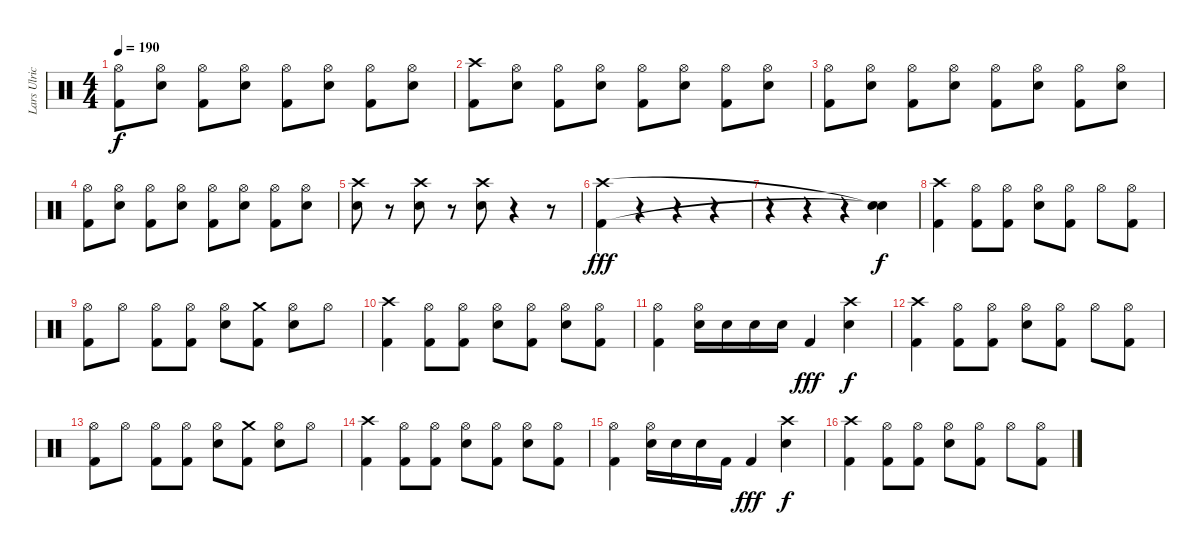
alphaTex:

\track ("Lars Ulrich" "Lars Ulric") {instrument percussion}
\staff {score}
\articulation defaults
\ts (4 4)
\tempo 190
\clef neutral
\ks c
("Hi-Hat (open)" "Kick (hit) 2").8{dy f} ("Hi-Hat (open)" "Snare (hit) 2").8 ("Hi-Hat (open)" "Kick (hit) 2").8 ("Hi-Hat (open)" "Snare (hit) 2").8 ("Hi-Hat (open)" "Kick (hit) 2").8 ("Hi-Hat (open)" "Snare (hit) 2").8 ("Hi-Hat (open)" "Kick (hit) 2").8 ("Hi-Hat (open)" "Snare (hit) 2").8 |
("Crash high (hit)" "Kick (hit) 2").8 ("Hi-Hat (open)" "Snare (hit) 2").8 ("Hi-Hat (open)" "Kick (hit) 2").8 ("Hi-Hat (open)" "Snare (hit) 2").8 ("Hi-Hat (open)" "Kick (hit) 2").8 ("Hi-Hat (open)" "Snare (hit) 2").8 ("Hi-Hat (open)" "Kick (hit) 2").8 ("Hi-Hat (open)" "Snare (hit) 2").8 |
("Hi-Hat (open)" "Kick (hit) 2").8 ("Hi-Hat (open)" "Snare (hit) 2").8 ("Hi-Hat (open)" "Kick (hit) 2").8 ("Hi-Hat (open)" "Snare (hit) 2").8 ("Hi-Hat (open)" "Kick (hit) 2").8 ("Hi-Hat (open)" "Snare (hit) 2").8 ("Hi-Hat (open)" "Kick (hit) 2").8 ("Hi-Hat (open)" "Snare (hit) 2").8 |
("Hi-Hat (open)" "Kick (hit) 2").8 ("Hi-Hat (open)" "Snare (hit) 2").8 ("Hi-Hat (open)" "Kick (hit) 2").8 ("Hi-Hat (open)" "Snare (hit) 2").8 ("Hi-Hat (open)" "Kick (hit) 2").8 ("Hi-Hat (open)" "Snare (hit) 2").8 ("Hi-Hat (open)" "Kick (hit) 2").8 ("Hi-Hat (open)" "Snare (hit) 2").8 |
("Crash high (hit)" "Snare (hit) 2").8 r.8 ("Crash high (hit)" "Snare (hit) 2").8 r.8 ("Crash high (hit)" "Snare (hit) 2").8 r.4 r.8 |
("Crash high (hit)" "Kick (hit) 2").4{dy fff} r.4 r.4 r.4 |
r.4 r.4 r.4 ("Snare (hit)"{t} "Snare (hit)"{t}).4{dy f} |
("Crash high (hit)" "Kick (hit) 2").4 ("Hi-Hat (open)" "Kick (hit) 2").8 ("Hi-Hat (open)" "Kick (hit) 2").8 ("Hi-Hat (open)" "Snare (hit) 2").8 ("Hi-Hat (open)" "Kick (hit) 2").8 "Hi-Hat (open)".8 ("Hi-Hat (open)" "Kick (hit) 2").8 |
("Hi-Hat (open)" "Kick (hit) 2").8 "Hi-Hat (open)".8 ("Hi-Hat (open)" "Kick (hit) 2").8 ("Hi-Hat (open)" "Kick (hit) 2").8 ("Hi-Hat (open)" "Snare (hit) 2").8 ("Crash medium (hit)" "Kick (hit) 2").8 ("Hi-Hat (open)" "Snare (hit) 2").8 "Hi-Hat (open)".8 |
("Crash high (hit)" "Kick (hit) 2").4 ("Hi-Hat (open)" "Kick (hit) 2").8 ("Hi-Hat (open)" "Kick (hit) 2").8 ("Hi-Hat (open)" "Snare (hit) 2").8 ("Hi-Hat (open)" "Kick (hit) 2").8 ("Hi-Hat (open)" "Snare (hit) 2").8 ("Hi-Hat (open)" "Kick (hit) 2").8 |
("Hi-Hat (open)" "Kick (hit) 2").4 ("Hi-Hat (open)" "Snare (hit) 2").16 "Snare (hit) 2".16 "Snare (hit) 2".16 "Snare (hit) 2".16 "Kick (hit) 2".4{dy fff} ("Crash high (hit)" "Snare (hit) 2").4{dy f} |
("Crash high (hit)" "Kick (hit) 2").4 ("Hi-Hat (open)" "Kick (hit) 2").8 ("Hi-Hat (open)" "Kick (hit) 2").8 ("Hi-Hat (open)" "Snare (hit) 2").8 ("Hi-Hat (open)" "Kick (hit) 2").8 "Hi-Hat (open)".8 ("Hi-Hat (open)" "Kick (hit) 2").8 |
("Hi-Hat (open)" "Kick (hit) 2").8 "Hi-Hat (open)".8 ("Hi-Hat (open)" "Kick (hit) 2").8 ("Hi-Hat (open)" "Kick (hit) 2").8 ("Hi-Hat (open)" "Snare (hit) 2").8 ("Crash medium (hit)" "Kick (hit) 2").8 ("Hi-Hat (open)" "Snare (hit) 2").8 "Hi-Hat (open)".8 |
("Crash high (hit)" "Kick (hit) 2").4 ("Hi-Hat (open)" "Kick (hit) 2").8 ("Hi-Hat (open)" "Kick (hit) 2").8 ("Hi-Hat (open)" "Snare (hit) 2").8 ("Hi-Hat (open)" "Kick (hit) 2").8 ("Hi-Hat (open)" "Snare (hit) 2").8 ("Hi-Hat (open)" "Kick (hit) 2").8 |
("Hi-Hat (open)" "Kick (hit) 2").4 ("Hi-Hat (open)" "Snare (hit) 2").16 "Snare (hit) 2".16 "Snare (hit) 2".16 "Kick (hit) 2".16 "Kick (hit) 2".4{dy fff} ("Crash high (hit)" "Snare (hit) 2").4{dy f} |
("Crash high (hit)" "Kick (hit) 2").4 ("Hi-Hat (open)" "Kick (hit) 2").8 ("Hi-Hat (open)" "Kick (hit) 2").8 ("Hi-Hat (open)" "Snare (hit) 2").8 ("Hi-Hat (open)" "Kick (hit) 2").8 "Hi-Hat (open)".8 ("Hi-Hat (open)" "Kick (hit) 2").8
